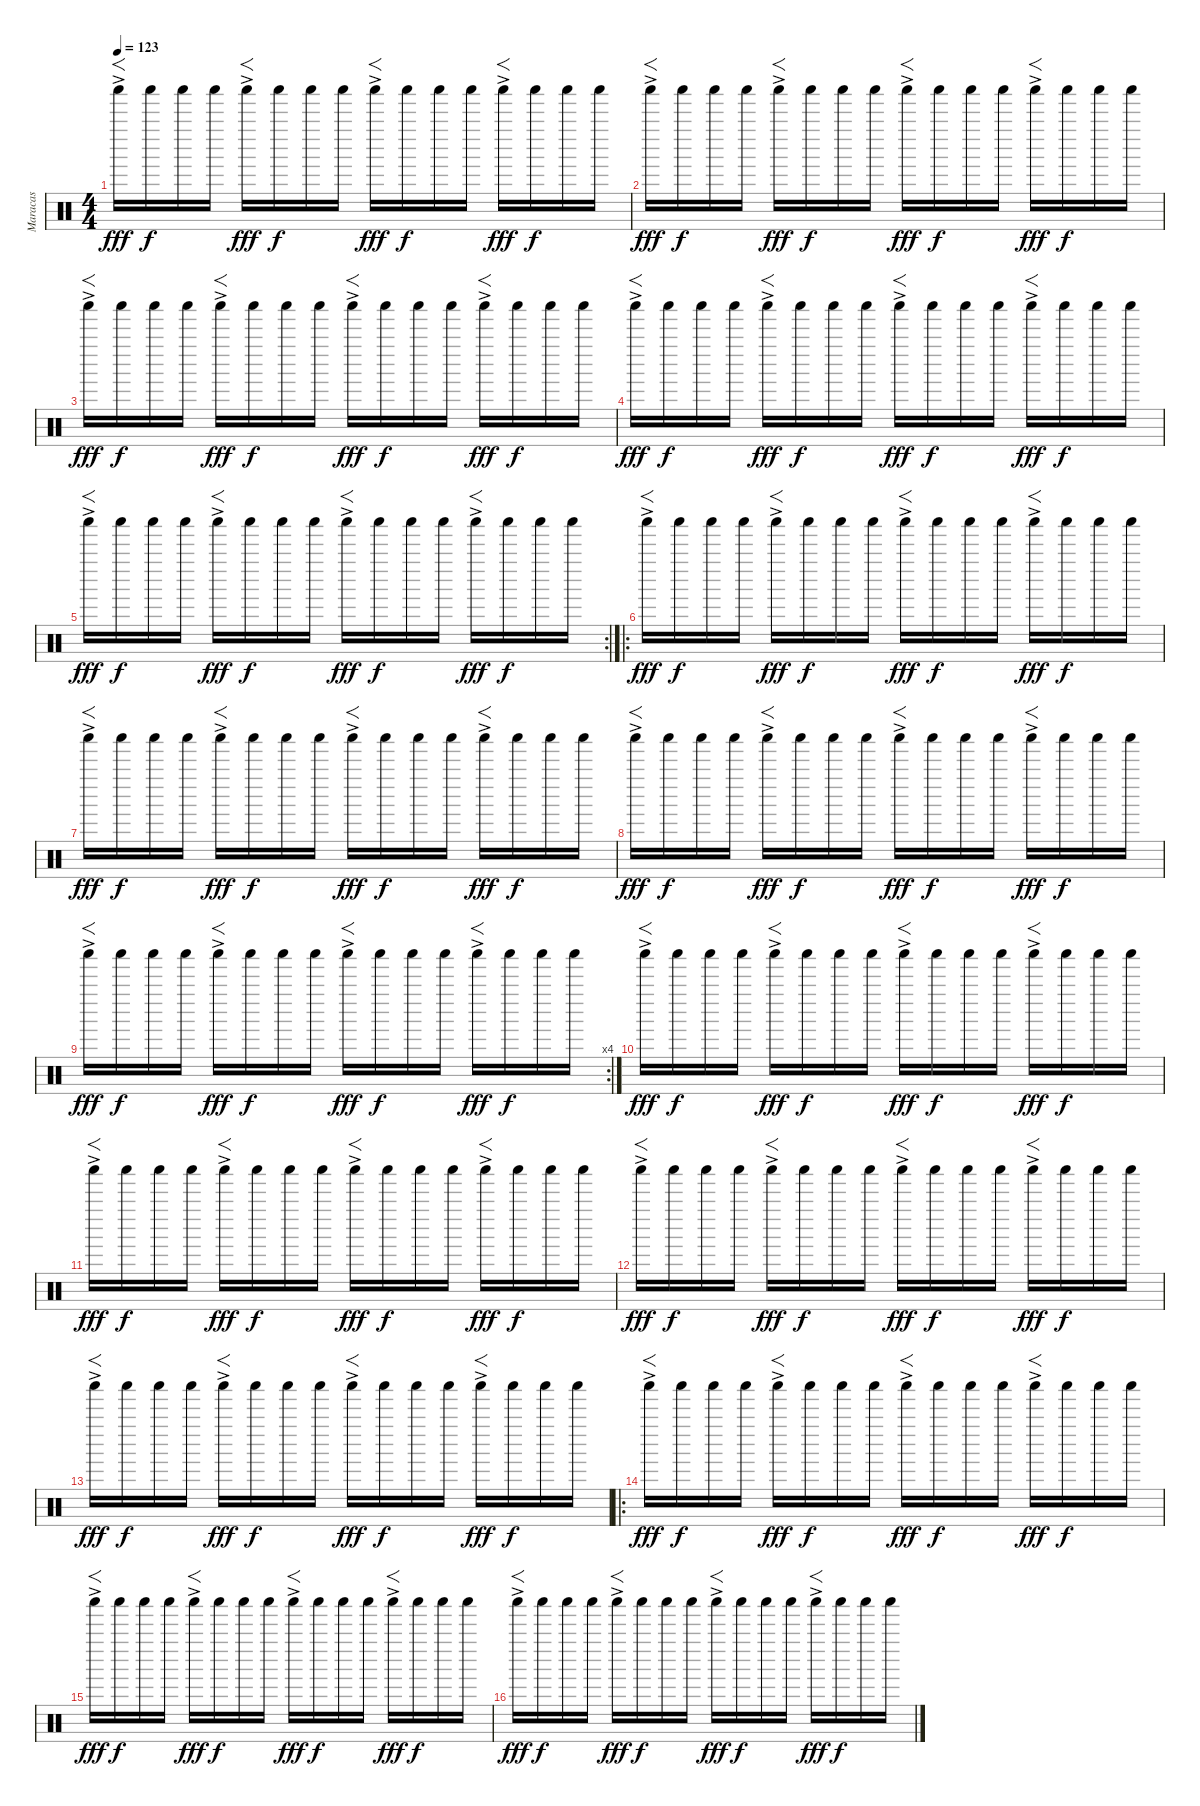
\track ("Maracas" "Maracas") {instrument percussion}
\staff {score}
\articulation defaults
\ts (4 4)
\tempo 123
\clef neutral
\ks c "Shaker (hit)"{ac}.16{f dy fff} "Shaker (hit)".16{dy f} "Shaker (hit)".16 "Shaker (hit)".16 "Shaker (hit)"{ac}.16{f dy fff} "Shaker (hit)".16{dy f} "Shaker (hit)".16 "Shaker (hit)".16 "Shaker (hit)"{ac}.16{f dy fff} "Shaker (hit)".16{dy f} "Shaker (hit)".16 "Shaker (hit)".16 "Shaker (hit)"{ac}.16{f dy fff} "Shaker (hit)".16{dy f} "Shaker (hit)".16 "Shaker (hit)".16
|
"Shaker (hit)"{ac}.16{f dy fff} "Shaker (hit)".16{dy f} "Shaker (hit)".16 "Shaker (hit)".16 "Shaker (hit)"{ac}.16{f dy fff} "Shaker (hit)".16{dy f} "Shaker (hit)".16 "Shaker (hit)".16 "Shaker (hit)"{ac}.16{f dy fff} "Shaker (hit)".16{dy f} "Shaker (hit)".16 "Shaker (hit)".16 "Shaker (hit)"{ac}.16{f dy fff} "Shaker (hit)".16{dy f} "Shaker (hit)".16 "Shaker (hit)".16 |
"Shaker (hit)"{ac}.16{f dy fff} "Shaker (hit)".16{dy f} "Shaker (hit)".16 "Shaker (hit)".16 "Shaker (hit)"{ac}.16{f dy fff} "Shaker (hit)".16{dy f} "Shaker (hit)".16 "Shaker (hit)".16 "Shaker (hit)"{ac}.16{f dy fff} "Shaker (hit)".16{dy f} "Shaker (hit)".16 "Shaker (hit)".16 "Shaker (hit)"{ac}.16{f dy fff} "Shaker (hit)".16{dy f} "Shaker (hit)".16 "Shaker (hit)".16 |
"Shaker (hit)"{ac}.16{f dy fff} "Shaker (hit)".16{dy f} "Shaker (hit)".16 "Shaker (hit)".16 "Shaker (hit)"{ac}.16{f dy fff} "Shaker (hit)".16{dy f} "Shaker (hit)".16 "Shaker (hit)".16 "Shaker (hit)"{ac}.16{f dy fff} "Shaker (hit)".16{dy f} "Shaker (hit)".16 "Shaker (hit)".16 "Shaker (hit)"{ac}.16{f dy fff} "Shaker (hit)".16{dy f} "Shaker (hit)".16 "Shaker (hit)".16 |
\rc 2 "Shaker (hit)"{ac}.16{f dy fff} "Shaker (hit)".16{dy f} "Shaker (hit)".16 "Shaker (hit)".16 "Shaker (hit)"{ac}.16{f dy fff} "Shaker (hit)".16{dy f} "Shaker (hit)".16 "Shaker (hit)".16 "Shaker (hit)"{ac}.16{f dy fff} "Shaker (hit)".16{dy f} "Shaker (hit)".16 "Shaker (hit)".16 "Shaker (hit)"{ac}.16{f dy fff} "Shaker (hit)".16{dy f} "Shaker (hit)".16 "Shaker (hit)".16
|
\ro "Shaker (hit)"{ac}.16{f dy fff} "Shaker (hit)".16{dy f} "Shaker (hit)".16 "Shaker (hit)".16 "Shaker (hit)"{ac}.16{f dy fff} "Shaker (hit)".16{dy f} "Shaker (hit)".16 "Shaker (hit)".16 "Shaker (hit)"{ac}.16{f dy fff} "Shaker (hit)".16{dy f} "Shaker (hit)".16 "Shaker (hit)".16 "Shaker (hit)"{ac}.16{f dy fff} "Shaker (hit)".16{dy f} "Shaker (hit)".16 "Shaker (hit)".16
|
"Shaker (hit)"{ac}.16{f dy fff} "Shaker (hit)".16{dy f} "Shaker (hit)".16 "Shaker (hit)".16 "Shaker (hit)"{ac}.16{f dy fff} "Shaker (hit)".16{dy f} "Shaker (hit)".16 "Shaker (hit)".16 "Shaker (hit)"{ac}.16{f dy fff} "Shaker (hit)".16{dy f} "Shaker (hit)".16 "Shaker (hit)".16 "Shaker (hit)"{ac}.16{f dy fff} "Shaker (hit)".16{dy f} "Shaker (hit)".16 "Shaker (hit)".16 |
"Shaker (hit)"{ac}.16{f dy fff} "Shaker (hit)".16{dy f} "Shaker (hit)".16 "Shaker (hit)".16 "Shaker (hit)"{ac}.16{f dy fff} "Shaker (hit)".16{dy f} "Shaker (hit)".16 "Shaker (hit)".16 "Shaker (hit)"{ac}.16{f dy fff} "Shaker (hit)".16{dy f} "Shaker (hit)".16 "Shaker (hit)".16 "Shaker (hit)"{ac}.16{f dy fff} "Shaker (hit)".16{dy f} "Shaker (hit)".16 "Shaker (hit)".16 |
\rc 4 "Shaker (hit)"{ac}.16{f dy fff} "Shaker (hit)".16{dy f} "Shaker (hit)".16 "Shaker (hit)".16 "Shaker (hit)"{ac}.16{f dy fff} "Shaker (hit)".16{dy f} "Shaker (hit)".16 "Shaker (hit)".16 "Shaker (hit)"{ac}.16{f dy fff} "Shaker (hit)".16{dy f} "Shaker (hit)".16 "Shaker (hit)".16 "Shaker (hit)"{ac}.16{f dy fff} "Shaker (hit)".16{dy f} "Shaker (hit)".16 "Shaker (hit)".16
|
"Shaker (hit)"{ac}.16{f dy fff} "Shaker (hit)".16{dy f} "Shaker (hit)".16 "Shaker (hit)".16 "Shaker (hit)"{ac}.16{f dy fff} "Shaker (hit)".16{dy f} "Shaker (hit)".16 "Shaker (hit)".16 "Shaker (hit)"{ac}.16{f dy fff} "Shaker (hit)".16{dy f} "Shaker (hit)".16 "Shaker (hit)".16 "Shaker (hit)"{ac}.16{f dy fff} "Shaker (hit)".16{dy f} "Shaker (hit)".16 "Shaker (hit)".16 |
"Shaker (hit)"{ac}.16{f dy fff} "Shaker (hit)".16{dy f} "Shaker (hit)".16 "Shaker (hit)".16 "Shaker (hit)"{ac}.16{f dy fff} "Shaker (hit)".16{dy f} "Shaker (hit)".16 "Shaker (hit)".16 "Shaker (hit)"{ac}.16{f dy fff} "Shaker (hit)".16{dy f} "Shaker (hit)".16 "Shaker (hit)".16 "Shaker (hit)"{ac}.16{f dy fff} "Shaker (hit)".16{dy f} "Shaker (hit)".16 "Shaker (hit)".16 |
"Shaker (hit)"{ac}.16{f dy fff} "Shaker (hit)".16{dy f} "Shaker (hit)".16 "Shaker (hit)".16 "Shaker (hit)"{ac}.16{f dy fff} "Shaker (hit)".16{dy f} "Shaker (hit)".16 "Shaker (hit)".16 "Shaker (hit)"{ac}.16{f dy fff} "Shaker (hit)".16{dy f} "Shaker (hit)".16 "Shaker (hit)".16 "Shaker (hit)"{ac}.16{f dy fff} "Shaker (hit)".16{dy f} "Shaker (hit)".16 "Shaker (hit)".16 |
"Shaker (hit)"{ac}.16{f dy fff} "Shaker (hit)".16{dy f} "Shaker (hit)".16 "Shaker (hit)".16 "Shaker (hit)"{ac}.16{f dy fff} "Shaker (hit)".16{dy f} "Shaker (hit)".16 "Shaker (hit)".16 "Shaker (hit)"{ac}.16{f dy fff} "Shaker (hit)".16{dy f} "Shaker (hit)".16 "Shaker (hit)".16 "Shaker (hit)"{ac}.16{f dy fff} "Shaker (hit)".16{dy f} "Shaker (hit)".16 "Shaker (hit)".16 |
\ro "Shaker (hit)"{ac}.16{f dy fff} "Shaker (hit)".16{dy f} "Shaker (hit)".16 "Shaker (hit)".16 "Shaker (hit)"{ac}.16{f dy fff} "Shaker (hit)".16{dy f} "Shaker (hit)".16 "Shaker (hit)".16 "Shaker (hit)"{ac}.16{f dy fff} "Shaker (hit)".16{dy f} "Shaker (hit)".16 "Shaker (hit)".16 "Shaker (hit)"{ac}.16{f dy fff} "Shaker (hit)".16{dy f} "Shaker (hit)".16 "Shaker (hit)".16
|
"Shaker (hit)"{ac}.16{f dy fff} "Shaker (hit)".16{dy f} "Shaker (hit)".16 "Shaker (hit)".16 "Shaker (hit)"{ac}.16{f dy fff} "Shaker (hit)".16{dy f} "Shaker (hit)".16 "Shaker (hit)".16 "Shaker (hit)"{ac}.16{f dy fff} "Shaker (hit)".16{dy f} "Shaker (hit)".16 "Shaker (hit)".16 "Shaker (hit)"{ac}.16{f dy fff} "Shaker (hit)".16{dy f} "Shaker (hit)".16 "Shaker (hit)".16 |
"Shaker (hit)"{ac}.16{f dy fff} "Shaker (hit)".16{dy f} "Shaker (hit)".16 "Shaker (hit)".16 "Shaker (hit)"{ac}.16{f dy fff} "Shaker (hit)".16{dy f} "Shaker (hit)".16 "Shaker (hit)".16 "Shaker (hit)"{ac}.16{f dy fff} "Shaker (hit)".16{dy f} "Shaker (hit)".16 "Shaker (hit)".16 "Shaker (hit)"{ac}.16{f dy fff} "Shaker (hit)".16{dy f} "Shaker (hit)".16 "Shaker (hit)".16
